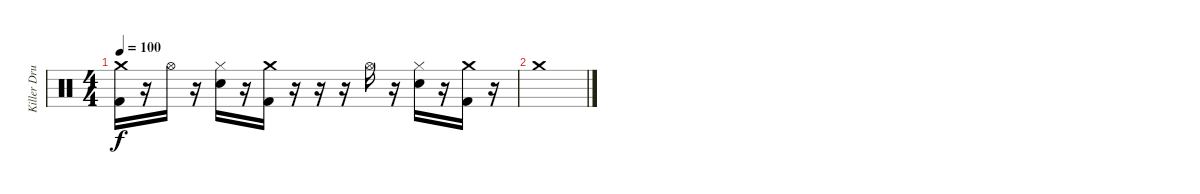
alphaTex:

\track ("Killer Drummer" "Killer Dru") {instrument percussion}
\staff {score}
\articulation defaults
\ts (4 4)
\tempo 100
\clef neutral
\ks c
("Crash medium (hit)" "Kick (hit) 2").16{dy f} r.16 "Hi-Hat (open)".16 r.16 ("Hi-Hat (closed)" "Electric Snare (hit)").16 r.16 ("Crash medium (hit)" "Kick (hit) 2").16 r.16 r.16 r.16 "Hi-Hat (open)".16 r.16 ("Hi-Hat (closed)" "Electric Snare (hit)").16 r.16 ("Crash medium (hit)" "Kick (hit) 2").16 r.16 |
"Crash medium (hit)".1
